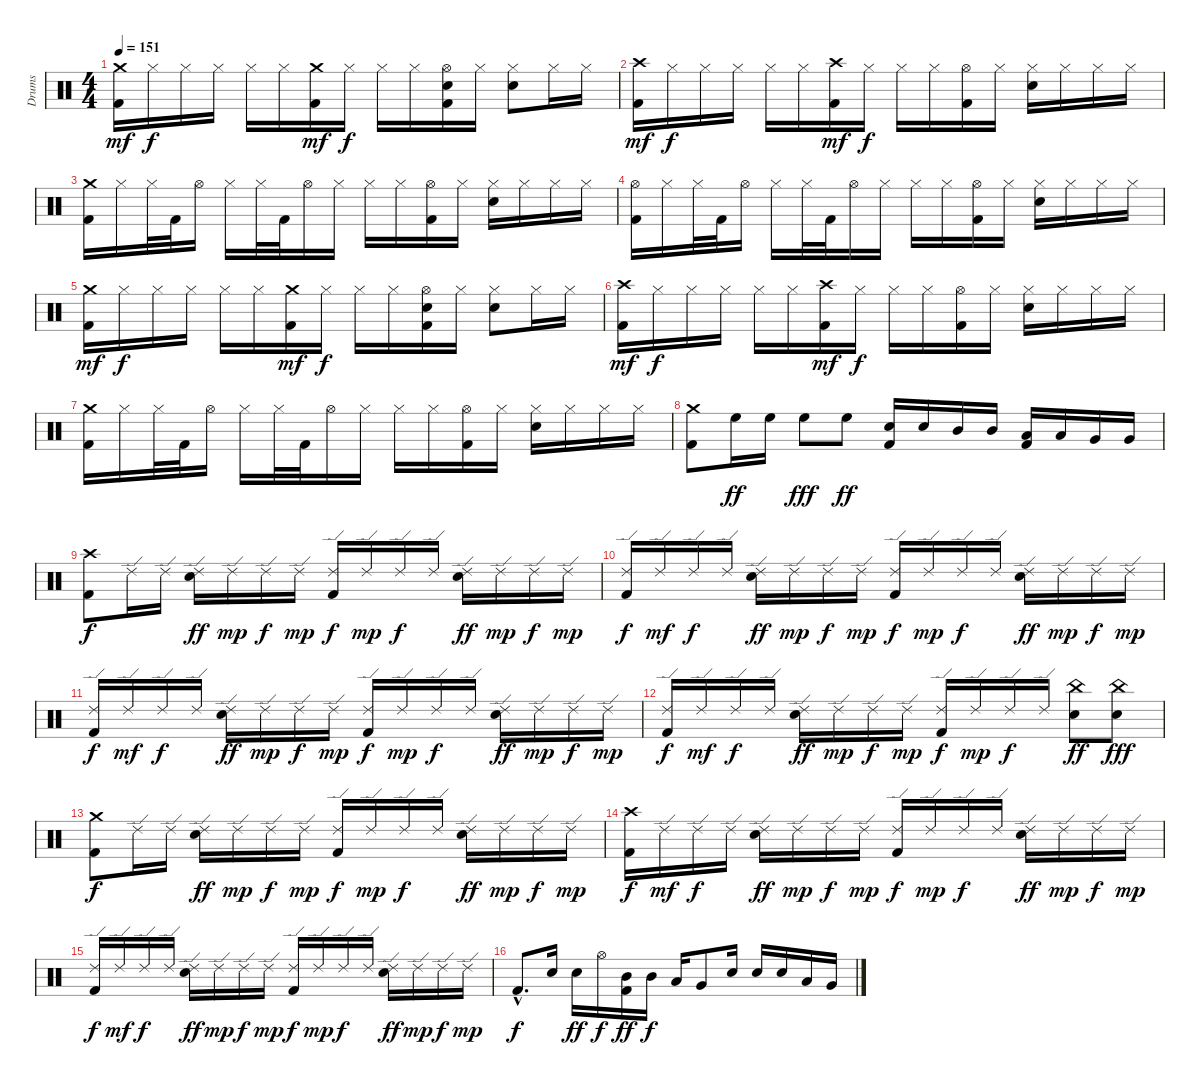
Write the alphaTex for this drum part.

\track ("Drums" "Drums") {instrument percussion}
\staff {score}
\articulation defaults
\ts (4 4)
\tempo 151
\clef neutral
\ks c
("Crash medium (hit)" "Kick (hit) 2").16{dy mf} "Hi-Hat (closed)".16{dy f} "Hi-Hat (closed)".16 "Hi-Hat (closed)".16 "Hi-Hat (closed)".16 "Hi-Hat (closed)".16 ("Crash medium (hit)" "Kick (hit) 2").16{dy mf} "Hi-Hat (closed)".16{dy f} "Hi-Hat (closed)".16 "Hi-Hat (closed)".16 ("Electric Snare (hit)" "Hi-Hat (open)" "Kick (hit) 2").16 "Hi-Hat (closed)".16 ("Electric Snare (hit)" "Hi-Hat (closed)").8 "Hi-Hat (closed)".16 "Hi-Hat (closed)".16 |
("Crash high (hit)" "Kick (hit) 2").16{dy mf} "Hi-Hat (closed)".16{dy f} "Hi-Hat (closed)".16 "Hi-Hat (closed)".16 "Hi-Hat (closed)".16 "Hi-Hat (closed)".16 ("Crash high (hit)" "Kick (hit) 2").16{dy mf} "Hi-Hat (closed)".16{dy f} "Hi-Hat (closed)".16 "Hi-Hat (closed)".16 ("Hi-Hat (open)" "Kick (hit) 2").16 "Hi-Hat (closed)".16 ("Electric Snare (hit)" "Hi-Hat (closed)").16 "Hi-Hat (closed)".16 "Hi-Hat (closed)".16 "Hi-Hat (closed)".16 |
("Crash medium (hit)" "Kick (hit) 2").16 "Hi-Hat (closed)".16 "Hi-Hat (closed)".32 "Kick (hit) 2".32 "Hi-Hat (open)".16 "Hi-Hat (closed)".16 "Hi-Hat (closed)".32 "Kick (hit) 2".32 "Hi-Hat (open)".16 "Hi-Hat (closed)".16 "Hi-Hat (closed)".16 "Hi-Hat (closed)".16 ("Hi-Hat (open)" "Kick (hit) 2").16 "Hi-Hat (closed)".16 ("Electric Snare (hit)" "Hi-Hat (closed)").16 "Hi-Hat (closed)".16 "Hi-Hat (closed)".16 "Hi-Hat (closed)".16 |
("Hi-Hat (open)" "Kick (hit) 2").16 "Hi-Hat (closed)".16 "Hi-Hat (closed)".32 "Kick (hit) 2".32 "Hi-Hat (open)".16 "Hi-Hat (closed)".16 "Hi-Hat (closed)".32 "Kick (hit) 2".32 "Hi-Hat (open)".16 "Hi-Hat (closed)".16 "Hi-Hat (closed)".16 "Hi-Hat (closed)".16 ("Hi-Hat (open)" "Kick (hit) 2").16 "Hi-Hat (closed)".16 ("Electric Snare (hit)" "Hi-Hat (closed)").16 "Hi-Hat (closed)".16 "Hi-Hat (closed)".16 "Hi-Hat (closed)".16 |
("Crash medium (hit)" "Kick (hit) 2").16{dy mf} "Hi-Hat (closed)".16{dy f} "Hi-Hat (closed)".16 "Hi-Hat (closed)".16 "Hi-Hat (closed)".16 "Hi-Hat (closed)".16 ("Crash medium (hit)" "Kick (hit) 2").16{dy mf} "Hi-Hat (closed)".16{dy f} "Hi-Hat (closed)".16 "Hi-Hat (closed)".16 ("Electric Snare (hit)" "Hi-Hat (open)" "Kick (hit) 2").16 "Hi-Hat (closed)".16 ("Electric Snare (hit)" "Hi-Hat (closed)").8 "Hi-Hat (closed)".16 "Hi-Hat (closed)".16 |
("Crash high (hit)" "Kick (hit) 2").16{dy mf} "Hi-Hat (closed)".16{dy f} "Hi-Hat (closed)".16 "Hi-Hat (closed)".16 "Hi-Hat (closed)".16 "Hi-Hat (closed)".16 ("Crash high (hit)" "Kick (hit) 2").16{dy mf} "Hi-Hat (closed)".16{dy f} "Hi-Hat (closed)".16 "Hi-Hat (closed)".16 ("Hi-Hat (open)" "Kick (hit) 2").16 "Hi-Hat (closed)".16 ("Electric Snare (hit)" "Hi-Hat (closed)").16 "Hi-Hat (closed)".16 "Hi-Hat (closed)".16 "Hi-Hat (closed)".16 |
("Crash medium (hit)" "Kick (hit) 2").16 "Hi-Hat (closed)".16 "Hi-Hat (closed)".32 "Kick (hit) 2".32 "Hi-Hat (open)".16 "Hi-Hat (closed)".16 "Hi-Hat (closed)".32 "Kick (hit) 2".32 "Hi-Hat (open)".16 "Hi-Hat (closed)".16 "Hi-Hat (closed)".16 "Hi-Hat (closed)".16 ("Hi-Hat (open)" "Kick (hit) 2").16 "Hi-Hat (closed)".16 ("Electric Snare (hit)" "Hi-Hat (closed)").16 "Hi-Hat (closed)".16 "Hi-Hat (closed)".16 "Hi-Hat (closed)".16 |
("Crash medium (hit)" "Kick (hit) 2").8 "High Floor Tom (hit)".16{dy ff} "High Floor Tom (hit)".16 "High Floor Tom (hit)".8{dy fff} "High Floor Tom (hit)".8{dy ff} ("Electric Snare (hit)" "Kick (hit) 2").16 "Electric Snare (hit)".16 "Mid Tom (hit)".16 "Mid Tom (hit)".16 ("Low Tom (hit)" "Kick (hit) 2").16 "Low Tom (hit)".16 "Very Low Tom (hit)".16 "Very Low Tom (hit)".16 |
("Crash high (hit)" "Kick (hit) 2").8{dy f} "Ride (edge) 2".16 "Ride (edge) 2".16 ("Ride (edge) 2" "Electric Snare (hit)").16{dy ff} "Ride (edge) 2".16{dy mp} "Ride (edge) 2".16{dy f} "Ride (edge) 2".16{dy mp} ("Ride (edge) 2" "Kick (hit) 2").16{dy f} "Ride (edge) 2".16{dy mp} "Ride (edge) 2".16{dy f} "Ride (edge) 2".16 ("Ride (edge) 2" "Electric Snare (hit)").16{dy ff} "Ride (edge) 2".16{dy mp} "Ride (edge) 2".16{dy f} "Ride (edge) 2".16{dy mp} |
("Ride (edge) 2" "Kick (hit) 2").16{dy f} "Ride (edge) 2".16{dy mf} "Ride (edge) 2".16{dy f} "Ride (edge) 2".16 ("Ride (edge) 2" "Electric Snare (hit)").16{dy ff} "Ride (edge) 2".16{dy mp} "Ride (edge) 2".16{dy f} "Ride (edge) 2".16{dy mp} ("Ride (edge) 2" "Kick (hit) 2").16{dy f} "Ride (edge) 2".16{dy mp} "Ride (edge) 2".16{dy f} "Ride (edge) 2".16 ("Ride (edge) 2" "Electric Snare (hit)").16{dy ff} "Ride (edge) 2".16{dy mp} "Ride (edge) 2".16{dy f} "Ride (edge) 2".16{dy mp} |
("Ride (edge) 2" "Kick (hit) 2").16{dy f} "Ride (edge) 2".16{dy mf} "Ride (edge) 2".16{dy f} "Ride (edge) 2".16 ("Ride (edge) 2" "Electric Snare (hit)").16{dy ff} "Ride (edge) 2".16{dy mp} "Ride (edge) 2".16{dy f} "Ride (edge) 2".16{dy mp} ("Ride (edge) 2" "Kick (hit) 2").16{dy f} "Ride (edge) 2".16{dy mp} "Ride (edge) 2".16{dy f} "Ride (edge) 2".16 ("Ride (edge) 2" "Electric Snare (hit)").16{dy ff} "Ride (edge) 2".16{dy mp} "Ride (edge) 2".16{dy f} "Ride (edge) 2".16{dy mp} |
("Ride (edge) 2" "Kick (hit) 2").16{dy f} "Ride (edge) 2".16{dy mf} "Ride (edge) 2".16{dy f} "Ride (edge) 2".16 ("Ride (edge) 2" "Electric Snare (hit)").16{dy ff} "Ride (edge) 2".16{dy mp} "Ride (edge) 2".16{dy f} "Ride (edge) 2".16{dy mp} ("Ride (edge) 2" "Kick (hit) 2").16{dy f} "Ride (edge) 2".16{dy mp} "Ride (edge) 2".16{dy f} "Ride (edge) 2".16 ("China (hit)" "Electric Snare (hit)").8{dy ff} ("Electric Snare (hit)" "China (hit)").8{dy fff} |
("Crash medium (hit)" "Kick (hit) 2").8{dy f} "Ride (edge) 2".16 "Ride (edge) 2".16 ("Ride (edge) 2" "Electric Snare (hit)").16{dy ff} "Ride (edge) 2".16{dy mp} "Ride (edge) 2".16{dy f} "Ride (edge) 2".16{dy mp} ("Ride (edge) 2" "Kick (hit) 2").16{dy f} "Ride (edge) 2".16{dy mp} "Ride (edge) 2".16{dy f} "Ride (edge) 2".16 ("Ride (edge) 2" "Electric Snare (hit)").16{dy ff} "Ride (edge) 2".16{dy mp} "Ride (edge) 2".16{dy f} "Ride (edge) 2".16{dy mp} |
("Crash high (hit)" "Kick (hit) 2").16{dy f} "Ride (edge) 2".16{dy mf} "Ride (edge) 2".16{dy f} "Ride (edge) 2".16 ("Ride (edge) 2" "Electric Snare (hit)").16{dy ff} "Ride (edge) 2".16{dy mp} "Ride (edge) 2".16{dy f} "Ride (edge) 2".16{dy mp} ("Ride (edge) 2" "Kick (hit) 2").16{dy f} "Ride (edge) 2".16{dy mp} "Ride (edge) 2".16{dy f} "Ride (edge) 2".16 ("Ride (edge) 2" "Electric Snare (hit)").16{dy ff} "Ride (edge) 2".16{dy mp} "Ride (edge) 2".16{dy f} "Ride (edge) 2".16{dy mp} |
("Ride (edge) 2" "Kick (hit) 2").16{dy f} "Ride (edge) 2".16{dy mf} "Ride (edge) 2".16{dy f} "Ride (edge) 2".16 ("Ride (edge) 2" "Electric Snare (hit)").16{dy ff} "Ride (edge) 2".16{dy mp} "Ride (edge) 2".16{dy f} "Ride (edge) 2".16{dy mp} ("Ride (edge) 2" "Kick (hit) 2").16{dy f} "Ride (edge) 2".16{dy mp} "Ride (edge) 2".16{dy f} "Ride (edge) 2".16 ("Ride (edge) 2" "Electric Snare (hit)").16{dy ff} "Ride (edge) 2".16{dy mp} "Ride (edge) 2".16{dy f} "Ride (edge) 2".16{dy mp} |
"Kick (hit) 2"{hac}.8{d dy f} "Electric Snare (hit)".16 "Electric Snare (hit)".16{dy ff} "Hi-Hat (open)".16{dy f} ("Mid Tom (hit)" "Kick (hit) 2").16{dy ff} "Mid Tom (hit)".16{dy f} "Low Tom (hit)".16 "Very Low Tom (hit)".8 "Electric Snare (hit)".16 "Electric Snare (hit)".16 "Electric Snare (hit)".16 "Low Tom (hit)".16 "Very Low Tom (hit)".16
